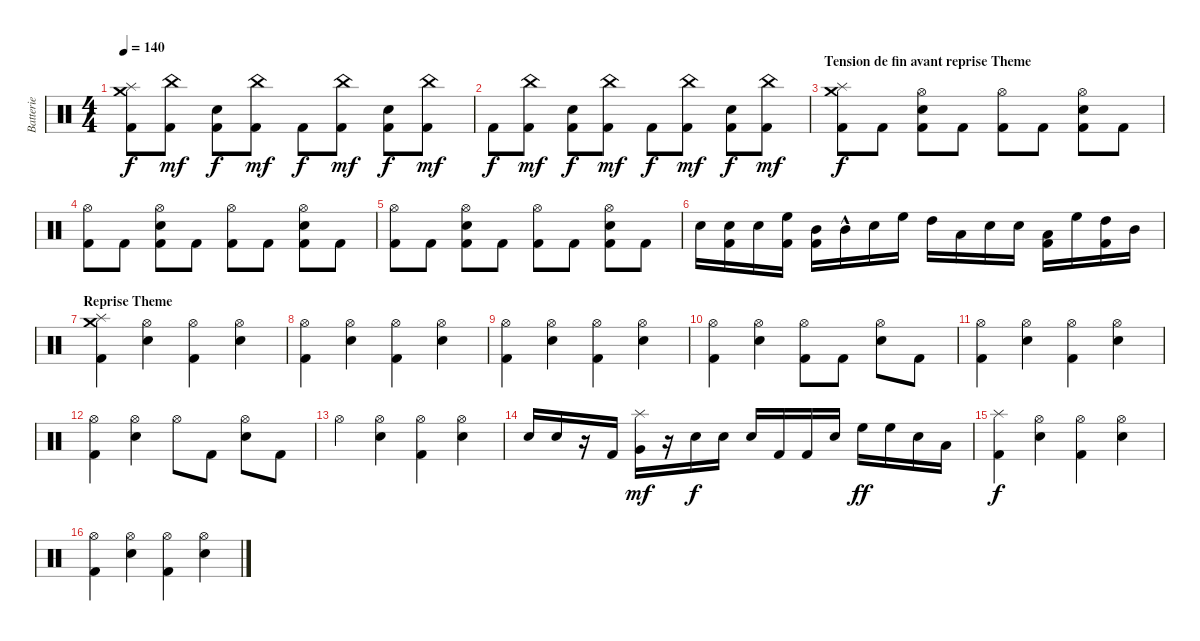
\track ("Batterie" "Batterie") {instrument percussion}
\staff {score}
\articulation defaults
\ts (4 4)
\tempo 140
\clef neutral
\ks c
("Crash medium (hit)" "Splash (hit)" "Kick (hit) 2").8{dy f} ("China (hit)" "Kick (hit) 2").8{dy mf} ("Snare (hit) 2" "Kick (hit) 2").8{dy f} ("China (hit)" "Kick (hit) 2").8{dy mf} "Kick (hit) 2".8{dy f} ("Kick (hit) 2" "China (hit)").8{dy mf} ("Kick (hit) 2" "Snare (hit) 2").8{dy f} ("Kick (hit) 2" "China (hit)").8{dy mf} |
"Kick (hit) 2".8{dy f} ("China (hit)" "Kick (hit) 2").8{dy mf} ("Kick (hit) 2" "Snare (hit) 2").8{dy f} ("Kick (hit) 2" "China (hit)").8{dy mf} "Kick (hit) 2".8{dy f} ("China (hit)" "Kick (hit) 2").8{dy mf} ("Snare (hit) 2" "Kick (hit) 2").8{dy f} ("China (hit)" "Kick (hit) 2").8{dy mf} |
\section ("" "Tension de fin avant reprise Theme")
("Crash medium (hit)" "Splash (hit)" "Kick (hit) 2").8{dy f} "Kick (hit) 2".8 ("Hi-Hat (open)" "Snare (hit) 2" "Kick (hit) 2").8 "Kick (hit) 2".8 ("Hi-Hat (open)" "Kick (hit) 2").8 "Kick (hit) 2".8 ("Kick (hit) 2" "Hi-Hat (open)" "Snare (hit) 2").8 "Kick (hit) 2".8 |
("Hi-Hat (open)" "Kick (hit) 2").8 "Kick (hit) 2".8 ("Hi-Hat (open)" "Kick (hit) 2" "Snare (hit) 2").8 "Kick (hit) 2".8 ("Hi-Hat (open)" "Kick (hit) 2").8 "Kick (hit) 2".8 ("Hi-Hat (open)" "Kick (hit) 2" "Snare (hit) 2").8 "Kick (hit) 2".8 |
("Hi-Hat (open)" "Kick (hit) 2").8 "Kick (hit) 2".8 ("Snare (hit) 2" "Hi-Hat (open)" "Kick (hit) 2").8 "Kick (hit) 2".8 ("Kick (hit) 2" "Hi-Hat (open)").8 "Kick (hit) 2".8 ("Snare (hit) 2" "Kick (hit) 2" "Hi-Hat (open)").8 "Kick (hit) 2".8 |
"Snare (hit) 2".16 ("Kick (hit) 2" "Snare (hit) 2").16 "Snare (hit) 2".16 ("High Floor Tom (hit)" "Kick (hit) 2").16 ("Kick (hit) 2" "Mid Tom (hit)").16 "Mid Tom (hit)"{hac}.16 "Snare (hit) 2".16 "High Floor Tom (hit)".16 "High Tom (hit)".16 "Low Tom (hit)".16 "Snare (hit) 2".16 "Snare (hit) 2".16 ("Low Tom (hit)" "Kick (hit) 2").16 "High Floor Tom (hit)".16 ("Kick (hit) 2" "High Tom (hit)").16 "Mid Tom (hit)".16 |
\section ("" "Reprise Theme")
("Crash medium (hit)" "Splash (hit)" "Kick (hit) 2").4 ("Snare (hit) 2" "Hi-Hat (open)").4 ("Kick (hit) 2" "Hi-Hat (open)").4 ("Snare (hit) 2" "Hi-Hat (open)").4 |
("Hi-Hat (open)" "Kick (hit) 2").4 ("Snare (hit) 2" "Hi-Hat (open)").4 ("Kick (hit) 2" "Hi-Hat (open)").4 ("Snare (hit) 2" "Hi-Hat (open)").4 |
("Hi-Hat (open)" "Kick (hit) 2").4 ("Snare (hit) 2" "Hi-Hat (open)").4 ("Kick (hit) 2" "Hi-Hat (open)").4 ("Hi-Hat (open)" "Snare (hit) 2").4 |
("Kick (hit) 2" "Hi-Hat (open)").4 ("Hi-Hat (open)" "Snare (hit) 2").4 ("Kick (hit) 2" "Hi-Hat (open)").8 "Kick (hit) 2".8 ("Hi-Hat (open)" "Snare (hit) 2").8 "Kick (hit) 2".8 |
("Kick (hit) 2" "Hi-Hat (open)").4 ("Hi-Hat (open)" "Snare (hit) 2").4 ("Hi-Hat (open)" "Kick (hit) 2").4 ("Snare (hit) 2" "Hi-Hat (open)").4 |
("Hi-Hat (open)" "Kick (hit) 2").4 ("Hi-Hat (open)" "Snare (hit) 2").4 "Hi-Hat (open)".8 "Kick (hit) 2".8 ("Snare (hit) 2" "Hi-Hat (open)").8 "Kick (hit) 2".8 |
"Hi-Hat (open)".4 ("Hi-Hat (open)" "Snare (hit) 2").4 ("Kick (hit) 2" "Hi-Hat (open)").4 ("Snare (hit) 2" "Hi-Hat (open)").4 |
"Snare (hit) 2".16 "Snare (hit) 2".16 r.16 "Kick (hit) 2".16 ("Splash (hit)" "Very Low Tom (hit)").16{dy mf} r.16 "Snare (hit) 2".16{dy f} "Snare (hit) 2".16 "Snare (hit) 2".16 "Kick (hit) 2".16 "Kick (hit) 2".16 "Snare (hit) 2".16 "High Floor Tom (hit)".16{dy ff} "High Floor Tom (hit)".16 "Snare (hit) 2".16 "Low Tom (hit)".16 |
("Splash (hit)" "Kick (hit) 2").4{dy f} ("Snare (hit) 2" "Hi-Hat (open)").4 ("Kick (hit) 2" "Hi-Hat (open)").4 ("Snare (hit) 2" "Hi-Hat (open)").4 |
("Hi-Hat (open)" "Kick (hit) 2").4 ("Hi-Hat (open)" "Snare (hit) 2").4 ("Hi-Hat (open)" "Kick (hit) 2").4 ("Snare (hit) 2" "Hi-Hat (open)").4
